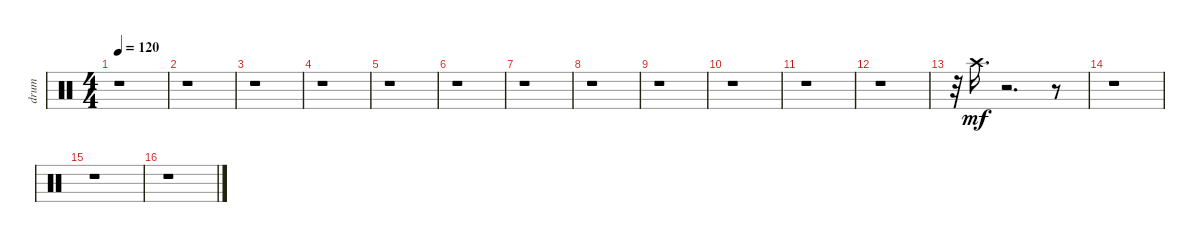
\track ("drum" "drum") {instrument percussion}
\staff {score}
\articulation defaults
\ts (4 4)
\tempo 120
\clef neutral
\ks c
r.1{dy mf} |
r.1 |
r.1 |
r.1 |
r.1 |
r.1 |
r.1 |
r.1 |
r.1 |
r.1 |
r.1 |
r.1 |
r.32 "Crash high (hit)".16{d} r.2{d} r.8 |
r.1 |
r.1 |
r.1
